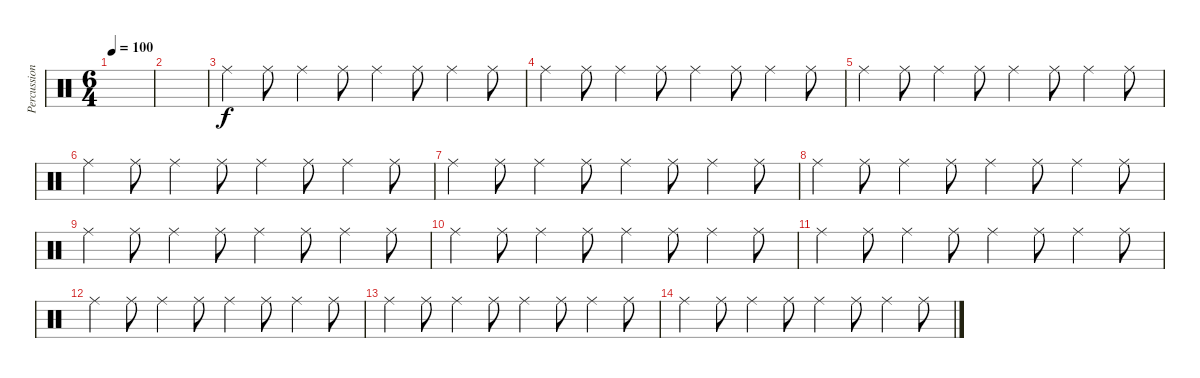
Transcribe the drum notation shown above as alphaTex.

\track ("Percussion" "Percussion") {instrument percussion}
\staff {score}
\articulation defaults
\ts (6 4)
\tempo 100
\clef neutral
\ks c
|
|
"Ride (middle)".4 "Ride (middle)".8 "Ride (middle)".4 "Ride (middle)".8 "Ride (middle)".4 "Ride (middle)".8 "Ride (middle)".4 "Ride (middle)".8 |
"Ride (middle)".4 "Ride (middle)".8 "Ride (middle)".4 "Ride (middle)".8 "Ride (middle)".4 "Ride (middle)".8 "Ride (middle)".4 "Ride (middle)".8 |
"Ride (middle)".4 "Ride (middle)".8 "Ride (middle)".4 "Ride (middle)".8 "Ride (middle)".4 "Ride (middle)".8 "Ride (middle)".4 "Ride (middle)".8 |
"Ride (middle)".4 "Ride (middle)".8 "Ride (middle)".4 "Ride (middle)".8 "Ride (middle)".4 "Ride (middle)".8 "Ride (middle)".4 "Ride (middle)".8 |
"Ride (middle)".4 "Ride (middle)".8 "Ride (middle)".4 "Ride (middle)".8 "Ride (middle)".4 "Ride (middle)".8 "Ride (middle)".4 "Ride (middle)".8 |
"Ride (middle)".4 "Ride (middle)".8 "Ride (middle)".4 "Ride (middle)".8 "Ride (middle)".4 "Ride (middle)".8 "Ride (middle)".4 "Ride (middle)".8 |
"Ride (middle)".4 "Ride (middle)".8 "Ride (middle)".4 "Ride (middle)".8 "Ride (middle)".4 "Ride (middle)".8 "Ride (middle)".4 "Ride (middle)".8 |
"Ride (middle)".4 "Ride (middle)".8 "Ride (middle)".4 "Ride (middle)".8 "Ride (middle)".4 "Ride (middle)".8 "Ride (middle)".4 "Ride (middle)".8 |
"Ride (middle)".4 "Ride (middle)".8 "Ride (middle)".4 "Ride (middle)".8 "Ride (middle)".4 "Ride (middle)".8 "Ride (middle)".4 "Ride (middle)".8 |
"Ride (middle)".4 "Ride (middle)".8 "Ride (middle)".4 "Ride (middle)".8 "Ride (middle)".4 "Ride (middle)".8 "Ride (middle)".4 "Ride (middle)".8 |
"Ride (middle)".4 "Ride (middle)".8 "Ride (middle)".4 "Ride (middle)".8 "Ride (middle)".4 "Ride (middle)".8 "Ride (middle)".4 "Ride (middle)".8 |
"Ride (middle)".4 "Ride (middle)".8 "Ride (middle)".4 "Ride (middle)".8 "Ride (middle)".4 "Ride (middle)".8 "Ride (middle)".4 "Ride (middle)".8
